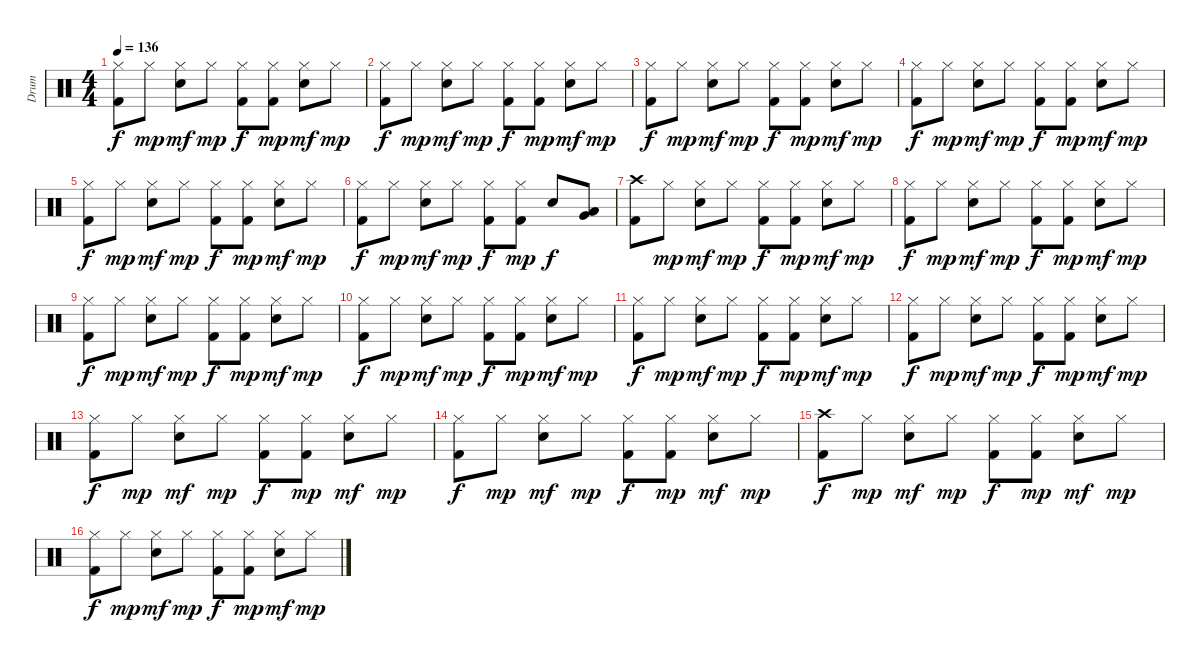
\track ("Drum" "Drum") {instrument percussion}
\staff {score}
\articulation defaults
\ts (4 4)
\tempo 136
\clef neutral
\ks c
("Hi-Hat (closed)" "Kick (hit) 2").8{dy f} "Hi-Hat (closed)".8{dy mp} ("Hi-Hat (closed)" "Snare (hit) 2").8{dy mf} "Hi-Hat (closed)".8{dy mp} ("Hi-Hat (closed)" "Kick (hit) 2").8{dy f} ("Hi-Hat (closed)" "Kick (hit) 2").8{dy mp} ("Hi-Hat (closed)" "Snare (hit) 2").8{dy mf} "Hi-Hat (closed)".8{dy mp} |
("Hi-Hat (closed)" "Kick (hit) 2").8{dy f} "Hi-Hat (closed)".8{dy mp} ("Hi-Hat (closed)" "Snare (hit) 2").8{dy mf} "Hi-Hat (closed)".8{dy mp} ("Hi-Hat (closed)" "Kick (hit) 2").8{dy f} ("Hi-Hat (closed)" "Kick (hit) 2").8{dy mp} ("Hi-Hat (closed)" "Snare (hit) 2").8{dy mf} "Hi-Hat (closed)".8{dy mp} |
("Hi-Hat (closed)" "Kick (hit) 2").8{dy f} "Hi-Hat (closed)".8{dy mp} ("Hi-Hat (closed)" "Snare (hit) 2").8{dy mf} "Hi-Hat (closed)".8{dy mp} ("Hi-Hat (closed)" "Kick (hit) 2").8{dy f} ("Hi-Hat (closed)" "Kick (hit) 2").8{dy mp} ("Hi-Hat (closed)" "Snare (hit) 2").8{dy mf} "Hi-Hat (closed)".8{dy mp} |
("Hi-Hat (closed)" "Kick (hit) 2").8{dy f} "Hi-Hat (closed)".8{dy mp} ("Hi-Hat (closed)" "Snare (hit) 2").8{dy mf} "Hi-Hat (closed)".8{dy mp} ("Hi-Hat (closed)" "Kick (hit) 2").8{dy f} ("Hi-Hat (closed)" "Kick (hit) 2").8{dy mp} ("Hi-Hat (closed)" "Snare (hit) 2").8{dy mf} "Hi-Hat (closed)".8{dy mp} |
("Hi-Hat (closed)" "Kick (hit) 2").8{dy f} "Hi-Hat (closed)".8{dy mp} ("Hi-Hat (closed)" "Snare (hit) 2").8{dy mf} "Hi-Hat (closed)".8{dy mp} ("Hi-Hat (closed)" "Kick (hit) 2").8{dy f} ("Hi-Hat (closed)" "Kick (hit) 2").8{dy mp} ("Hi-Hat (closed)" "Snare (hit) 2").8{dy mf} "Hi-Hat (closed)".8{dy mp} |
("Hi-Hat (closed)" "Kick (hit) 2").8{dy f} "Hi-Hat (closed)".8{dy mp} ("Hi-Hat (closed)" "Snare (hit) 2").8{dy mf} "Hi-Hat (closed)".8{dy mp} ("Hi-Hat (closed)" "Kick (hit) 2").8{dy f} ("Hi-Hat (closed)" "Kick (hit) 2").8{dy mp} "Snare (hit) 2".8{dy f} ("Low Tom (hit)" "Very Low Tom (hit)").8 |
("Crash high (hit)" "Kick (hit) 2").8 "Hi-Hat (closed)".8{dy mp} ("Hi-Hat (closed)" "Snare (hit) 2").8{dy mf} "Hi-Hat (closed)".8{dy mp} ("Hi-Hat (closed)" "Kick (hit) 2").8{dy f} ("Hi-Hat (closed)" "Kick (hit) 2").8{dy mp} ("Hi-Hat (closed)" "Snare (hit) 2").8{dy mf} "Hi-Hat (closed)".8{dy mp} |
("Hi-Hat (closed)" "Kick (hit) 2").8{dy f} "Hi-Hat (closed)".8{dy mp} ("Hi-Hat (closed)" "Snare (hit) 2").8{dy mf} "Hi-Hat (closed)".8{dy mp} ("Hi-Hat (closed)" "Kick (hit) 2").8{dy f} ("Hi-Hat (closed)" "Kick (hit) 2").8{dy mp} ("Hi-Hat (closed)" "Snare (hit) 2").8{dy mf} "Hi-Hat (closed)".8{dy mp} |
("Hi-Hat (closed)" "Kick (hit) 2").8{dy f} "Hi-Hat (closed)".8{dy mp} ("Hi-Hat (closed)" "Snare (hit) 2").8{dy mf} "Hi-Hat (closed)".8{dy mp} ("Hi-Hat (closed)" "Kick (hit) 2").8{dy f} ("Hi-Hat (closed)" "Kick (hit) 2").8{dy mp} ("Hi-Hat (closed)" "Snare (hit) 2").8{dy mf} "Hi-Hat (closed)".8{dy mp} |
("Hi-Hat (closed)" "Kick (hit) 2").8{dy f} "Hi-Hat (closed)".8{dy mp} ("Hi-Hat (closed)" "Snare (hit) 2").8{dy mf} "Hi-Hat (closed)".8{dy mp} ("Hi-Hat (closed)" "Kick (hit) 2").8{dy f} ("Hi-Hat (closed)" "Kick (hit) 2").8{dy mp} ("Hi-Hat (closed)" "Snare (hit) 2").8{dy mf} "Hi-Hat (closed)".8{dy mp} |
("Hi-Hat (closed)" "Kick (hit) 2").8{dy f} "Hi-Hat (closed)".8{dy mp} ("Hi-Hat (closed)" "Snare (hit) 2").8{dy mf} "Hi-Hat (closed)".8{dy mp} ("Hi-Hat (closed)" "Kick (hit) 2").8{dy f} ("Hi-Hat (closed)" "Kick (hit) 2").8{dy mp} ("Hi-Hat (closed)" "Snare (hit) 2").8{dy mf} "Hi-Hat (closed)".8{dy mp} |
("Hi-Hat (closed)" "Kick (hit) 2").8{dy f} "Hi-Hat (closed)".8{dy mp} ("Hi-Hat (closed)" "Snare (hit) 2").8{dy mf} "Hi-Hat (closed)".8{dy mp} ("Hi-Hat (closed)" "Kick (hit) 2").8{dy f} ("Hi-Hat (closed)" "Kick (hit) 2").8{dy mp} ("Hi-Hat (closed)" "Snare (hit) 2").8{dy mf} "Hi-Hat (closed)".8{dy mp} |
("Hi-Hat (closed)" "Kick (hit) 2").8{dy f} "Hi-Hat (closed)".8{dy mp} ("Hi-Hat (closed)" "Snare (hit) 2").8{dy mf} "Hi-Hat (closed)".8{dy mp} ("Hi-Hat (closed)" "Kick (hit) 2").8{dy f} ("Hi-Hat (closed)" "Kick (hit) 2").8{dy mp} ("Hi-Hat (closed)" "Snare (hit) 2").8{dy mf} "Hi-Hat (closed)".8{dy mp} |
("Hi-Hat (closed)" "Kick (hit) 2").8{dy f} "Hi-Hat (closed)".8{dy mp} ("Hi-Hat (closed)" "Snare (hit) 2").8{dy mf} "Hi-Hat (closed)".8{dy mp} ("Hi-Hat (closed)" "Kick (hit) 2").8{dy f} ("Hi-Hat (closed)" "Kick (hit) 2").8{dy mp} ("Hi-Hat (closed)" "Snare (hit) 2").8{dy mf} "Hi-Hat (closed)".8{dy mp} |
("Crash high (hit)" "Kick (hit) 2").8{dy f} "Hi-Hat (closed)".8{dy mp} ("Hi-Hat (closed)" "Snare (hit) 2").8{dy mf} "Hi-Hat (closed)".8{dy mp} ("Hi-Hat (closed)" "Kick (hit) 2").8{dy f} ("Hi-Hat (closed)" "Kick (hit) 2").8{dy mp} ("Hi-Hat (closed)" "Snare (hit) 2").8{dy mf} "Hi-Hat (closed)".8{dy mp} |
("Hi-Hat (closed)" "Kick (hit) 2").8{dy f} "Hi-Hat (closed)".8{dy mp} ("Hi-Hat (closed)" "Snare (hit) 2").8{dy mf} "Hi-Hat (closed)".8{dy mp} ("Hi-Hat (closed)" "Kick (hit) 2").8{dy f} ("Hi-Hat (closed)" "Kick (hit) 2").8{dy mp} ("Hi-Hat (closed)" "Snare (hit) 2").8{dy mf} "Hi-Hat (closed)".8{dy mp}
